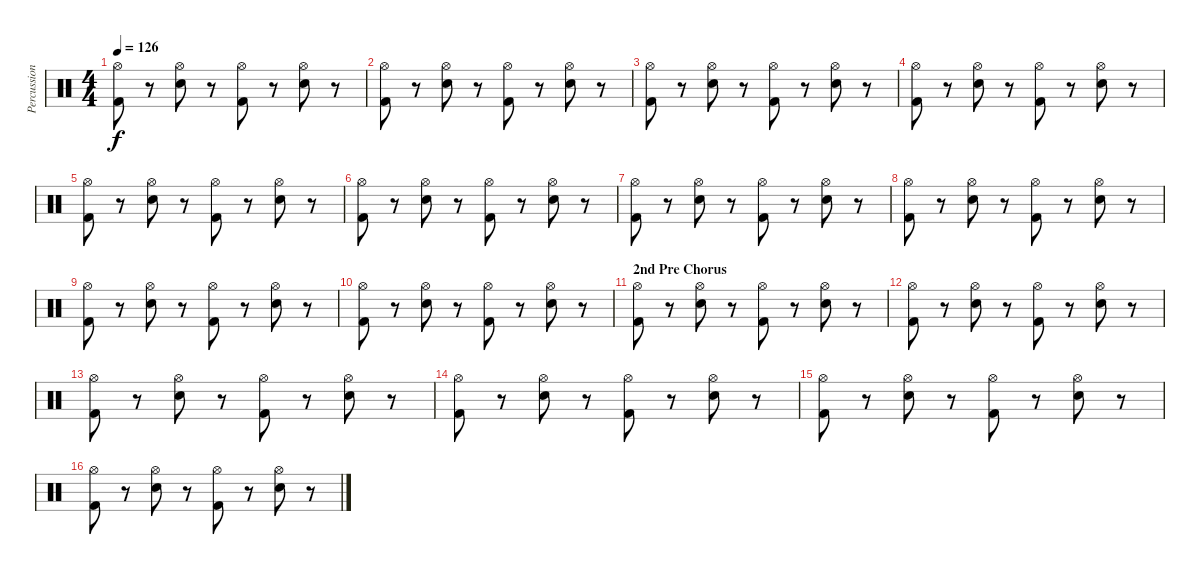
\track ("Percussion" "Percussion") {instrument percussion}
\staff {score}
\articulation defaults
\ts (4 4)
\tempo 126
\clef neutral
\ks c
("Hi-Hat (open)" "Kick (hit) 2").8{dy f} r.8 ("Hi-Hat (open)" "Snare (hit) 2").8 r.8 ("Hi-Hat (open)" "Kick (hit) 2").8 r.8 ("Hi-Hat (open)" "Snare (hit) 2").8 r.8 |
("Hi-Hat (open)" "Kick (hit) 2").8 r.8 ("Hi-Hat (open)" "Snare (hit) 2").8 r.8 ("Hi-Hat (open)" "Kick (hit) 2").8 r.8 ("Hi-Hat (open)" "Snare (hit) 2").8 r.8 |
("Hi-Hat (open)" "Kick (hit) 2").8 r.8 ("Hi-Hat (open)" "Snare (hit) 2").8 r.8 ("Hi-Hat (open)" "Kick (hit) 2").8 r.8 ("Hi-Hat (open)" "Snare (hit) 2").8 r.8 |
("Hi-Hat (open)" "Kick (hit) 2").8 r.8 ("Hi-Hat (open)" "Snare (hit) 2").8 r.8 ("Hi-Hat (open)" "Kick (hit) 2").8 r.8 ("Hi-Hat (open)" "Snare (hit) 2").8 r.8 |
("Hi-Hat (open)" "Kick (hit) 2").8 r.8 ("Hi-Hat (open)" "Snare (hit) 2").8 r.8 ("Hi-Hat (open)" "Kick (hit) 2").8 r.8 ("Hi-Hat (open)" "Snare (hit) 2").8 r.8 |
("Hi-Hat (open)" "Kick (hit) 2").8 r.8 ("Hi-Hat (open)" "Snare (hit) 2").8 r.8 ("Hi-Hat (open)" "Kick (hit) 2").8 r.8 ("Hi-Hat (open)" "Snare (hit) 2").8 r.8 |
("Hi-Hat (open)" "Kick (hit) 2").8 r.8 ("Hi-Hat (open)" "Snare (hit) 2").8 r.8 ("Hi-Hat (open)" "Kick (hit) 2").8 r.8 ("Hi-Hat (open)" "Snare (hit) 2").8 r.8 |
("Hi-Hat (open)" "Kick (hit) 2").8 r.8 ("Hi-Hat (open)" "Snare (hit) 2").8 r.8 ("Hi-Hat (open)" "Kick (hit) 2").8 r.8 ("Hi-Hat (open)" "Snare (hit) 2").8 r.8 |
("Hi-Hat (open)" "Kick (hit) 2").8 r.8 ("Hi-Hat (open)" "Snare (hit) 2").8 r.8 ("Hi-Hat (open)" "Kick (hit) 2").8 r.8 ("Hi-Hat (open)" "Snare (hit) 2").8 r.8 |
("Hi-Hat (open)" "Kick (hit) 2").8 r.8 ("Hi-Hat (open)" "Snare (hit) 2").8 r.8 ("Hi-Hat (open)" "Kick (hit) 2").8 r.8 ("Hi-Hat (open)" "Snare (hit) 2").8 r.8 |
\section ("" "2nd Pre Chorus")
("Hi-Hat (open)" "Kick (hit) 2").8 r.8 ("Hi-Hat (open)" "Snare (hit) 2").8 r.8 ("Hi-Hat (open)" "Kick (hit) 2").8 r.8 ("Hi-Hat (open)" "Snare (hit) 2").8 r.8 |
("Hi-Hat (open)" "Kick (hit) 2").8 r.8 ("Hi-Hat (open)" "Snare (hit) 2").8 r.8 ("Hi-Hat (open)" "Kick (hit) 2").8 r.8 ("Hi-Hat (open)" "Snare (hit) 2").8 r.8 |
("Hi-Hat (open)" "Kick (hit) 2").8 r.8 ("Hi-Hat (open)" "Snare (hit) 2").8 r.8 ("Hi-Hat (open)" "Kick (hit) 2").8 r.8 ("Hi-Hat (open)" "Snare (hit) 2").8 r.8 |
("Hi-Hat (open)" "Kick (hit) 2").8 r.8 ("Hi-Hat (open)" "Snare (hit) 2").8 r.8 ("Hi-Hat (open)" "Kick (hit) 2").8 r.8 ("Hi-Hat (open)" "Snare (hit) 2").8 r.8 |
("Hi-Hat (open)" "Kick (hit) 2").8 r.8 ("Hi-Hat (open)" "Snare (hit) 2").8 r.8 ("Hi-Hat (open)" "Kick (hit) 2").8 r.8 ("Hi-Hat (open)" "Snare (hit) 2").8 r.8 |
("Hi-Hat (open)" "Kick (hit) 2").8 r.8 ("Hi-Hat (open)" "Snare (hit) 2").8 r.8 ("Hi-Hat (open)" "Kick (hit) 2").8 r.8 ("Hi-Hat (open)" "Snare (hit) 2").8 r.8
